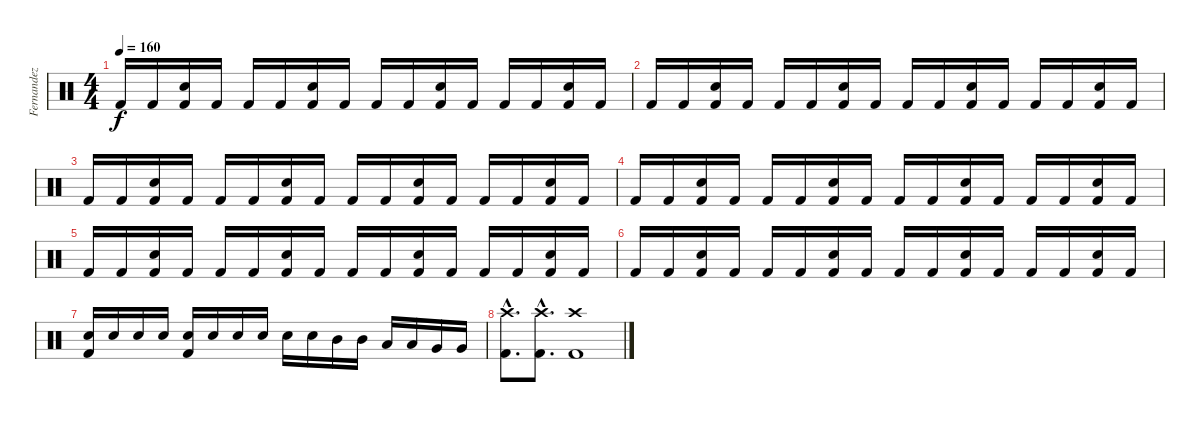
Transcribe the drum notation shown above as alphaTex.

\track ("Fernandez" "Fernandez") {instrument percussion}
\staff {score}
\articulation defaults
\ts (4 4)
\tempo 160
\clef neutral
\ks c "Kick (hit) 2".16{dy f} "Kick (hit) 2".16
("Snare (hit) 2" "Kick (hit) 2").16 "Kick (hit) 2".16 "Kick (hit) 2".16 "Kick (hit) 2".16 ("Snare (hit) 2" "Kick (hit) 2").16 "Kick (hit) 2".16 "Kick (hit) 2".16 "Kick (hit) 2".16 ("Snare (hit) 2" "Kick (hit) 2").16 "Kick (hit) 2".16 "Kick (hit) 2".16 "Kick (hit) 2".16 ("Snare (hit) 2" "Kick (hit) 2").16 "Kick (hit) 2".16 |
"Kick (hit) 2".16 "Kick (hit) 2".16 ("Snare (hit) 2" "Kick (hit) 2").16 "Kick (hit) 2".16 "Kick (hit) 2".16 "Kick (hit) 2".16 ("Snare (hit) 2" "Kick (hit) 2").16 "Kick (hit) 2".16 "Kick (hit) 2".16 "Kick (hit) 2".16 ("Snare (hit) 2" "Kick (hit) 2").16 "Kick (hit) 2".16 "Kick (hit) 2".16 "Kick (hit) 2".16 ("Snare (hit) 2" "Kick (hit) 2").16 "Kick (hit) 2".16 |
"Kick (hit) 2".16 "Kick (hit) 2".16 ("Snare (hit) 2" "Kick (hit) 2").16 "Kick (hit) 2".16 "Kick (hit) 2".16 "Kick (hit) 2".16 ("Snare (hit) 2" "Kick (hit) 2").16 "Kick (hit) 2".16 "Kick (hit) 2".16 "Kick (hit) 2".16 ("Snare (hit) 2" "Kick (hit) 2").16 "Kick (hit) 2".16 "Kick (hit) 2".16 "Kick (hit) 2".16 ("Snare (hit) 2" "Kick (hit) 2").16 "Kick (hit) 2".16 |
"Kick (hit) 2".16 "Kick (hit) 2".16 ("Snare (hit) 2" "Kick (hit) 2").16 "Kick (hit) 2".16 "Kick (hit) 2".16 "Kick (hit) 2".16 ("Snare (hit) 2" "Kick (hit) 2").16 "Kick (hit) 2".16 "Kick (hit) 2".16 "Kick (hit) 2".16 ("Snare (hit) 2" "Kick (hit) 2").16 "Kick (hit) 2".16 "Kick (hit) 2".16 "Kick (hit) 2".16 ("Snare (hit) 2" "Kick (hit) 2").16 "Kick (hit) 2".16 |
"Kick (hit) 2".16 "Kick (hit) 2".16 ("Snare (hit) 2" "Kick (hit) 2").16 "Kick (hit) 2".16 "Kick (hit) 2".16 "Kick (hit) 2".16 ("Snare (hit) 2" "Kick (hit) 2").16 "Kick (hit) 2".16 "Kick (hit) 2".16 "Kick (hit) 2".16 ("Snare (hit) 2" "Kick (hit) 2").16 "Kick (hit) 2".16 "Kick (hit) 2".16 "Kick (hit) 2".16 ("Snare (hit) 2" "Kick (hit) 2").16 "Kick (hit) 2".16 |
"Kick (hit) 2".16 "Kick (hit) 2".16 ("Snare (hit) 2" "Kick (hit) 2").16 "Kick (hit) 2".16 "Kick (hit) 2".16 "Kick (hit) 2".16 ("Snare (hit) 2" "Kick (hit) 2").16 "Kick (hit) 2".16 "Kick (hit) 2".16 "Kick (hit) 2".16 ("Snare (hit) 2" "Kick (hit) 2").16 "Kick (hit) 2".16 "Kick (hit) 2".16 "Kick (hit) 2".16 ("Snare (hit) 2" "Kick (hit) 2").16 "Kick (hit) 2".16 |
("Kick (hit) 2" "Snare (hit) 2").16 "Snare (hit) 2".16 "Snare (hit) 2".16 "Snare (hit) 2".16 ("Kick (hit) 2" "Snare (hit) 2").16 "Snare (hit) 2".16 "Snare (hit) 2".16 "Snare (hit) 2".16 "Snare (hit) 2".16 "Snare (hit) 2".16 "Mid Tom (hit)".16 "Mid Tom (hit)".16 "Low Tom (hit)".16 "Low Tom (hit)".16 "Very Low Tom (hit)".16 "Very Low Tom (hit)".16 |
("Crash high (hit)"{hac} "Kick (hit) 2"{hac}).8{d} ("Crash high (hit)"{hac} "Kick (hit) 2"{hac}).8{d} ("Crash high (hit)" "Kick (hit) 2").1
